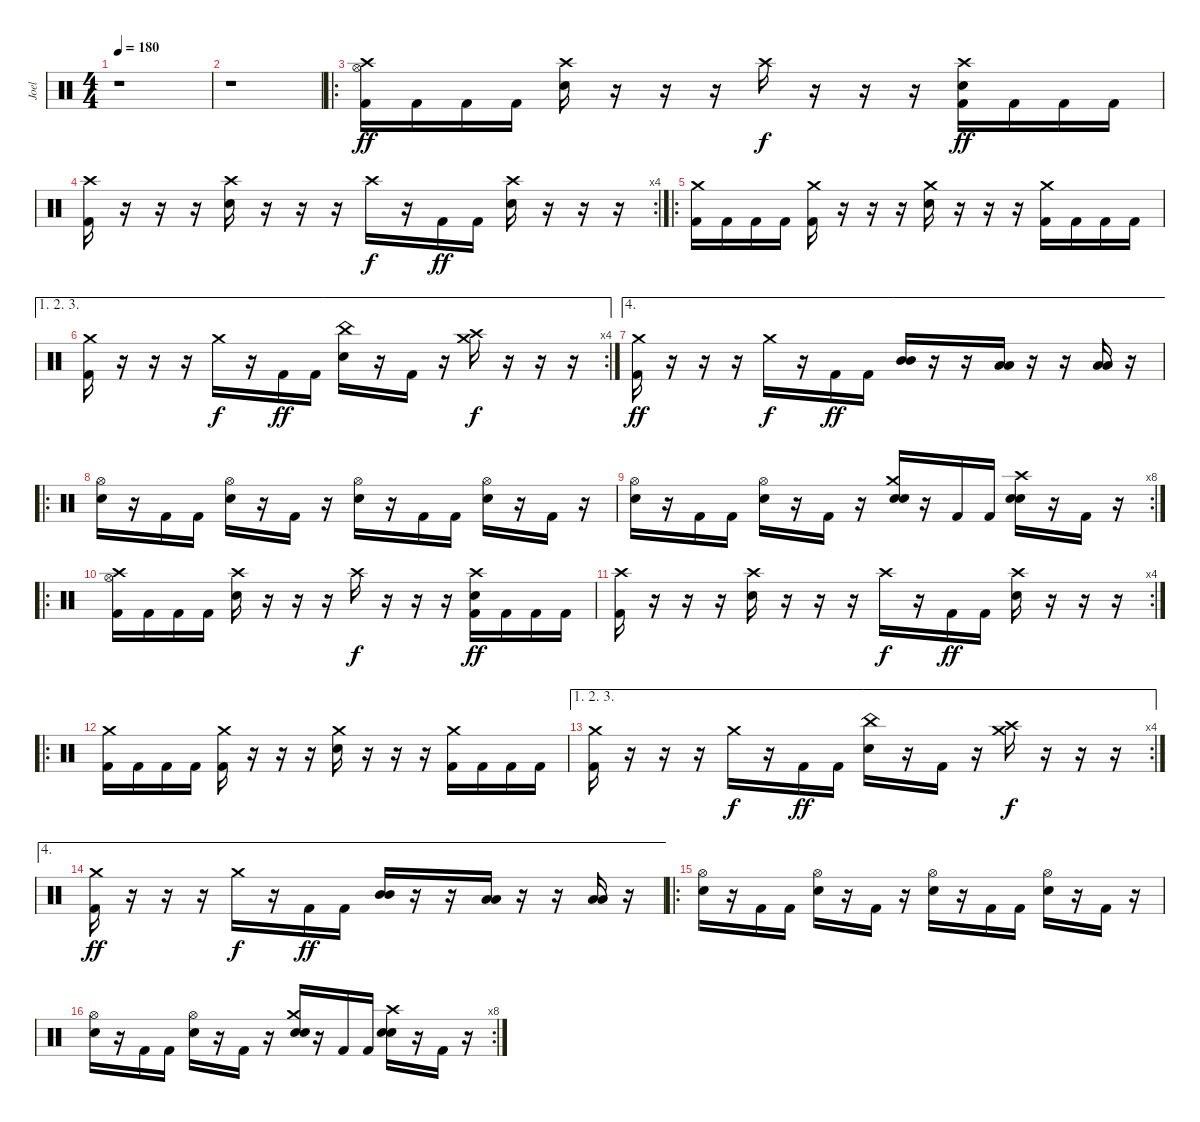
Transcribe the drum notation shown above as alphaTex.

\track ("Joel" "Joel") {instrument percussion}
\staff {score}
\articulation defaults
\ts (4 4)
\tempo 180
\clef neutral
\ks c
r.1{dy ff} |
r.1 |
\ro
("Crash high (hit)" "Hi-Hat (open)" "Kick (hit) 2").16 "Kick (hit) 2".16 "Kick (hit) 2".16 "Kick (hit) 2".16 ("Crash high (hit)" "Electric Snare (hit)").16 r.16 r.16 r.16 "Crash high (hit)".16{dy f} r.16 r.16 r.16 ("Crash high (hit)" "Electric Snare (hit)" "Kick (hit) 2").16{dy ff} "Kick (hit) 2".16 "Kick (hit) 2".16 "Kick (hit) 2".16 |
\rc 4
("Crash high (hit)" "Kick (hit) 2").16 r.16 r.16 r.16 ("Crash high (hit)" "Electric Snare (hit)").16 r.16 r.16 r.16 "Crash high (hit)".16{dy f} r.16 "Kick (hit) 2".16{dy ff} "Kick (hit) 2".16 ("Crash high (hit)" "Electric Snare (hit)").16 r.16 r.16 r.16 |
\ro
("Crash medium (hit)" "Kick (hit) 2").16 "Kick (hit) 2".16 "Kick (hit) 2".16 "Kick (hit) 2".16 ("Crash medium (hit)" "Kick (hit) 2").16 r.16 r.16 r.16 ("Crash medium (hit)" "Electric Snare (hit)").16 r.16 r.16 r.16 ("Crash medium (hit)" "Kick (hit) 2").16 "Kick (hit) 2".16 "Kick (hit) 2".16 "Kick (hit) 2".16 |
\ae (1 2 3)
\rc 4
("Crash medium (hit)" "Kick (hit) 2").16 r.16 r.16 r.16 "Crash medium (hit)".16{dy f} r.16 "Kick (hit) 2".16{dy ff} "Kick (hit) 2".16 ("China (hit)" "Electric Snare (hit)").16 r.16 "Kick (hit) 2".16 r.16 ("Crash medium (hit)" "Crash high (hit)").16{dy f} r.16 r.16 r.16 |
\ae 4
("Crash medium (hit)" "Kick (hit) 2").16{dy ff} r.16 r.16 r.16 "Crash medium (hit)".16{dy f} r.16 "Kick (hit) 2".16{dy ff} "Kick (hit) 2".16 ("Mid Tom (hit)" "Mid Tom (hit)").16 r.16 r.16 ("Low Tom (hit)" "Low Tom (hit)").16 r.16 r.16 ("Low Floor Tom (hit)" "Low Floor Tom (hit)").16 r.16 |
\ro
("Hi-Hat (open)" "Electric Snare (hit)").16 r.16 "Kick (hit) 2".16 "Kick (hit) 2".16 ("Hi-Hat (open)" "Electric Snare (hit)").16 r.16 "Kick (hit) 2".16 r.16 ("Hi-Hat (open)" "Electric Snare (hit)").16 r.16 "Kick (hit) 2".16 "Kick (hit) 2".16 ("Hi-Hat (open)" "Electric Snare (hit)").16 r.16 "Kick (hit) 2".16 r.16 |
\rc 8
("Hi-Hat (open)" "Electric Snare (hit)").16 r.16 "Kick (hit) 2".16 "Kick (hit) 2".16 ("Hi-Hat (open)" "Electric Snare (hit)").16 r.16 "Kick (hit) 2".16 r.16 ("Snare (hit)" "Crash medium (hit)" "Electric Snare (hit)").16 r.16 "Kick (hit) 2".16 "Kick (hit) 2".16 ("Snare (hit)" "Crash high (hit)" "Electric Snare (hit)").16 r.16 "Kick (hit) 2".16 r.16 |
\ro
("Crash high (hit)" "Hi-Hat (open)" "Kick (hit) 2").16 "Kick (hit) 2".16 "Kick (hit) 2".16 "Kick (hit) 2".16 ("Crash high (hit)" "Electric Snare (hit)").16 r.16 r.16 r.16 "Crash high (hit)".16{dy f} r.16 r.16 r.16 ("Crash high (hit)" "Electric Snare (hit)" "Kick (hit) 2").16{dy ff} "Kick (hit) 2".16 "Kick (hit) 2".16 "Kick (hit) 2".16 |
\rc 4
("Crash high (hit)" "Kick (hit) 2").16 r.16 r.16 r.16 ("Crash high (hit)" "Electric Snare (hit)").16 r.16 r.16 r.16 "Crash high (hit)".16{dy f} r.16 "Kick (hit) 2".16{dy ff} "Kick (hit) 2".16 ("Crash high (hit)" "Electric Snare (hit)").16 r.16 r.16 r.16 |
\ro
("Crash medium (hit)" "Kick (hit) 2").16 "Kick (hit) 2".16 "Kick (hit) 2".16 "Kick (hit) 2".16 ("Crash medium (hit)" "Kick (hit) 2").16 r.16 r.16 r.16 ("Crash medium (hit)" "Electric Snare (hit)").16 r.16 r.16 r.16 ("Crash medium (hit)" "Kick (hit) 2").16 "Kick (hit) 2".16 "Kick (hit) 2".16 "Kick (hit) 2".16 |
\ae (1 2 3)
\rc 4
("Crash medium (hit)" "Kick (hit) 2").16 r.16 r.16 r.16 "Crash medium (hit)".16{dy f} r.16 "Kick (hit) 2".16{dy ff} "Kick (hit) 2".16 ("China (hit)" "Electric Snare (hit)").16 r.16 "Kick (hit) 2".16 r.16 ("Crash medium (hit)" "Crash high (hit)").16{dy f} r.16 r.16 r.16 |
\ae 4
("Crash medium (hit)" "Kick (hit) 2").16{dy ff} r.16 r.16 r.16 "Crash medium (hit)".16{dy f} r.16 "Kick (hit) 2".16{dy ff} "Kick (hit) 2".16 ("Mid Tom (hit)" "Mid Tom (hit)").16 r.16 r.16 ("Low Tom (hit)" "Low Tom (hit)").16 r.16 r.16 ("Low Floor Tom (hit)" "Low Floor Tom (hit)").16 r.16 |
\ro
("Hi-Hat (open)" "Electric Snare (hit)").16 r.16 "Kick (hit) 2".16 "Kick (hit) 2".16 ("Hi-Hat (open)" "Electric Snare (hit)").16 r.16 "Kick (hit) 2".16 r.16 ("Hi-Hat (open)" "Electric Snare (hit)").16 r.16 "Kick (hit) 2".16 "Kick (hit) 2".16 ("Hi-Hat (open)" "Electric Snare (hit)").16 r.16 "Kick (hit) 2".16 r.16 |
\rc 8
("Hi-Hat (open)" "Electric Snare (hit)").16 r.16 "Kick (hit) 2".16 "Kick (hit) 2".16 ("Hi-Hat (open)" "Electric Snare (hit)").16 r.16 "Kick (hit) 2".16 r.16 ("Snare (hit)" "Crash medium (hit)" "Electric Snare (hit)").16 r.16 "Kick (hit) 2".16 "Kick (hit) 2".16 ("Snare (hit)" "Crash high (hit)" "Electric Snare (hit)").16 r.16 "Kick (hit) 2".16 r.16
